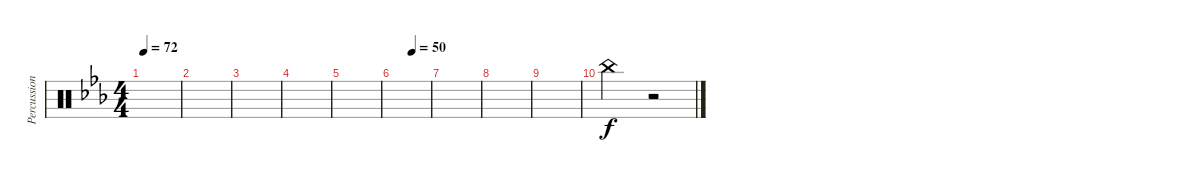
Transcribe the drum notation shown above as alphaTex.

\track ("Percussion" "Percussion") {instrument percussion}
\staff {score}
\articulation defaults
\ts (4 4)
\tempo 72
\clef neutral
\ks eb
|
|
|
|
|
\tempo (50 0.5)
|
|
|
|
"China (hit)".2 r.2
